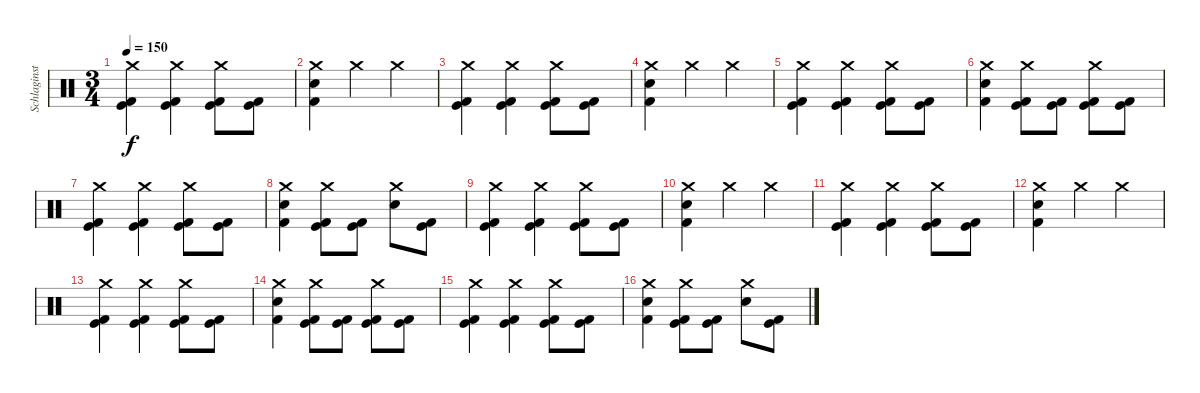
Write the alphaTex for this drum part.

\track ("Schlaginstrumente - Auswahl" "Schlaginst") {instrument percussion}
\staff {score}
\articulation defaults
\ts (3 4)
\tempo 150
\clef neutral
\ks c
("Crash medium (hit)" "Kick (hit)" "Kick (hit) 2").4{dy f} ("Crash medium (hit)" "Kick (hit)" "Kick (hit) 2").4 ("Crash medium (hit)" "Kick (hit)" "Kick (hit) 2").8 ("Kick (hit)" "Kick (hit) 2").8 |
("Crash medium (hit)" "Electric Snare (hit)" "Kick (hit) 2").4 "Crash medium (hit)".4 "Crash medium (hit)".4 |
("Crash medium (hit)" "Kick (hit)" "Kick (hit) 2").4 ("Crash medium (hit)" "Kick (hit)" "Kick (hit) 2").4 ("Crash medium (hit)" "Kick (hit)" "Kick (hit) 2").8 ("Kick (hit)" "Kick (hit) 2").8 |
("Crash medium (hit)" "Electric Snare (hit)" "Kick (hit) 2").4 "Crash medium (hit)".4 "Crash medium (hit)".4 |
("Crash medium (hit)" "Kick (hit)" "Kick (hit) 2").4 ("Crash medium (hit)" "Kick (hit)" "Kick (hit) 2").4 ("Crash medium (hit)" "Kick (hit)" "Kick (hit) 2").8 ("Kick (hit)" "Kick (hit) 2").8 |
("Crash medium (hit)" "Electric Snare (hit)" "Kick (hit) 2").4 ("Crash medium (hit)" "Kick (hit)" "Kick (hit) 2").8 ("Kick (hit)" "Kick (hit) 2").8 ("Crash medium (hit)" "Kick (hit)" "Kick (hit) 2").8 ("Kick (hit)" "Kick (hit) 2").8 |
("Crash medium (hit)" "Kick (hit)" "Kick (hit) 2").4 ("Crash medium (hit)" "Kick (hit)" "Kick (hit) 2").4 ("Crash medium (hit)" "Kick (hit)" "Kick (hit) 2").8 ("Kick (hit)" "Kick (hit) 2").8 |
("Crash medium (hit)" "Electric Snare (hit)" "Kick (hit) 2").4 ("Crash medium (hit)" "Kick (hit)" "Kick (hit) 2").8 ("Kick (hit)" "Kick (hit) 2").8 ("Crash medium (hit)" "Electric Snare (hit)").8 ("Kick (hit)" "Kick (hit) 2").8 |
("Crash medium (hit)" "Kick (hit)" "Kick (hit) 2").4 ("Crash medium (hit)" "Kick (hit)" "Kick (hit) 2").4 ("Crash medium (hit)" "Kick (hit)" "Kick (hit) 2").8 ("Kick (hit)" "Kick (hit) 2").8 |
("Crash medium (hit)" "Electric Snare (hit)" "Kick (hit) 2").4 "Crash medium (hit)".4 "Crash medium (hit)".4 |
("Crash medium (hit)" "Kick (hit)" "Kick (hit) 2").4 ("Crash medium (hit)" "Kick (hit)" "Kick (hit) 2").4 ("Crash medium (hit)" "Kick (hit)" "Kick (hit) 2").8 ("Kick (hit)" "Kick (hit) 2").8 |
("Crash medium (hit)" "Electric Snare (hit)" "Kick (hit) 2").4 "Crash medium (hit)".4 "Crash medium (hit)".4 |
("Crash medium (hit)" "Kick (hit)" "Kick (hit) 2").4 ("Crash medium (hit)" "Kick (hit)" "Kick (hit) 2").4 ("Crash medium (hit)" "Kick (hit)" "Kick (hit) 2").8 ("Kick (hit)" "Kick (hit) 2").8 |
("Crash medium (hit)" "Electric Snare (hit)" "Kick (hit) 2").4 ("Crash medium (hit)" "Kick (hit)" "Kick (hit) 2").8 ("Kick (hit)" "Kick (hit) 2").8 ("Crash medium (hit)" "Kick (hit)" "Kick (hit) 2").8 ("Kick (hit)" "Kick (hit) 2").8 |
("Crash medium (hit)" "Kick (hit)" "Kick (hit) 2").4 ("Crash medium (hit)" "Kick (hit)" "Kick (hit) 2").4 ("Crash medium (hit)" "Kick (hit)" "Kick (hit) 2").8 ("Kick (hit)" "Kick (hit) 2").8 |
("Crash medium (hit)" "Electric Snare (hit)" "Kick (hit) 2").4 ("Crash medium (hit)" "Kick (hit)" "Kick (hit) 2").8 ("Kick (hit)" "Kick (hit) 2").8 ("Crash medium (hit)" "Electric Snare (hit)").8 ("Kick (hit)" "Kick (hit) 2").8
